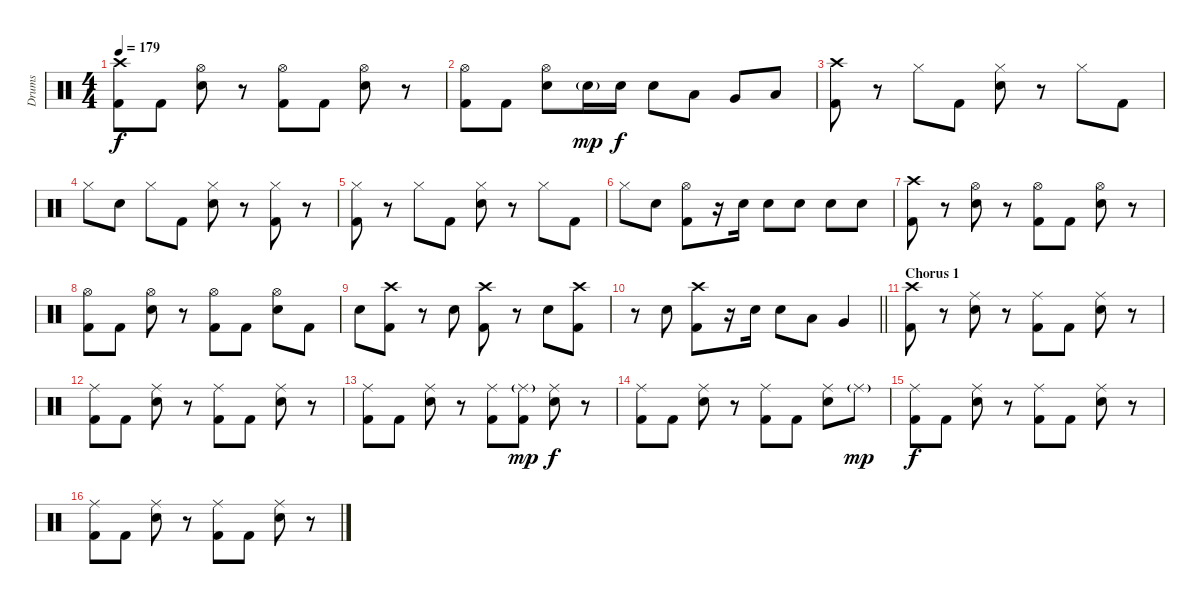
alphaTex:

\track ("Drums" "Drums") {instrument percussion}
\staff {score}
\articulation defaults
\ts (4 4)
\tempo 179
\clef neutral
\ks c
("Crash high (hit)" "Kick (hit) 2").8{dy f} "Kick (hit) 2".8 ("Hi-Hat (open)" "Snare (hit) 2").8 r.8 ("Hi-Hat (open)" "Kick (hit) 2").8 "Kick (hit) 2".8 ("Hi-Hat (open)" "Snare (hit) 2").8 r.8 |
("Hi-Hat (open)" "Kick (hit) 2").8 "Kick (hit) 2".8 ("Hi-Hat (open)" "Snare (hit) 2").8 "Snare (hit) 2"{g}.16{dy mp} "Snare (hit) 2".16{dy f} "Snare (hit) 2".8 "Low Tom (hit)".8 "Very Low Tom (hit)".8 "Low Floor Tom (hit)".8 |
("Crash high (hit)" "Kick (hit) 2").8 r.8 "Hi-Hat (closed)".8 "Kick (hit) 2".8 ("Hi-Hat (closed)" "Snare (hit) 2").8 r.8 "Hi-Hat (closed)".8 "Kick (hit) 2".8 |
"Hi-Hat (closed)".8 "Snare (hit) 2".8 "Hi-Hat (closed)".8 "Kick (hit) 2".8 ("Hi-Hat (closed)" "Snare (hit) 2").8 r.8 ("Hi-Hat (closed)" "Kick (hit) 2").8 r.8 |
("Hi-Hat (closed)" "Kick (hit) 2").8 r.8 "Hi-Hat (closed)".8 "Kick (hit) 2".8 ("Hi-Hat (closed)" "Snare (hit) 2").8 r.8 "Hi-Hat (closed)".8 "Kick (hit) 2".8 |
"Hi-Hat (closed)".8 "Snare (hit) 2".8 ("Hi-Hat (open)" "Kick (hit) 2").8 r.16 "Snare (hit) 2".16 "Snare (hit) 2".8 "Snare (hit) 2".8 "Snare (hit) 2".8 "Snare (hit) 2".8 |
("Crash high (hit)" "Kick (hit) 2").8 r.8 ("Hi-Hat (open)" "Snare (hit) 2").8 r.8 ("Hi-Hat (open)" "Kick (hit) 2").8 "Kick (hit) 2".8 ("Hi-Hat (open)" "Snare (hit) 2").8 r.8 |
("Hi-Hat (open)" "Kick (hit) 2").8 "Kick (hit) 2".8 ("Hi-Hat (open)" "Snare (hit) 2").8 r.8 ("Hi-Hat (open)" "Kick (hit) 2").8 "Kick (hit) 2".8 ("Hi-Hat (open)" "Snare (hit) 2").8 "Kick (hit) 2".8 |
"Snare (hit) 2".8 ("Crash high (hit)" "Kick (hit) 2").8 r.8 "Snare (hit) 2".8 ("Crash high (hit)" "Kick (hit) 2").8 r.8 "Snare (hit) 2".8 ("Crash high (hit)" "Kick (hit) 2").8 |
\barLineRight lightlight
r.8 "Snare (hit) 2".8 ("Crash high (hit)" "Kick (hit) 2").8 r.16 "Snare (hit) 2".16 "Snare (hit) 2".8 "Low Tom (hit)".8 "Very Low Tom (hit)".4 |
\section ("" "Chorus 1")
("Crash high (hit)" "Kick (hit) 2").8 r.8 ("Ride (middle)" "Snare (hit) 2").8 r.8 ("Ride (middle)" "Kick (hit) 2").8 "Kick (hit) 2".8 ("Ride (middle)" "Snare (hit) 2").8 r.8 |
("Ride (middle)" "Kick (hit) 2").8 "Kick (hit) 2".8 ("Ride (middle)" "Snare (hit) 2").8 r.8 ("Ride (middle)" "Kick (hit) 2").8 "Kick (hit) 2".8 ("Ride (middle)" "Snare (hit) 2").8 r.8 |
("Ride (middle)" "Kick (hit) 2").8 "Kick (hit) 2".8 ("Ride (middle)" "Snare (hit) 2").8 r.8 ("Ride (middle)" "Kick (hit) 2").8 ("Ride (middle)"{g} "Kick (hit) 2").8{dy mp} ("Ride (middle)" "Snare (hit) 2").8{dy f} r.8 |
("Ride (middle)" "Kick (hit) 2").8 "Kick (hit) 2".8 ("Ride (middle)" "Snare (hit) 2").8 r.8 ("Ride (middle)" "Kick (hit) 2").8 "Kick (hit) 2".8 ("Ride (middle)" "Snare (hit) 2").8 "Ride (middle)"{g}.8{dy mp} |
("Ride (middle)" "Kick (hit) 2").8{dy f} "Kick (hit) 2".8 ("Ride (middle)" "Snare (hit) 2").8 r.8 ("Ride (middle)" "Kick (hit) 2").8 "Kick (hit) 2".8 ("Ride (middle)" "Snare (hit) 2").8 r.8 |
("Ride (middle)" "Kick (hit) 2").8 "Kick (hit) 2".8 ("Ride (middle)" "Snare (hit) 2").8 r.8 ("Ride (middle)" "Kick (hit) 2").8 "Kick (hit) 2".8 ("Ride (middle)" "Snare (hit) 2").8 r.8
